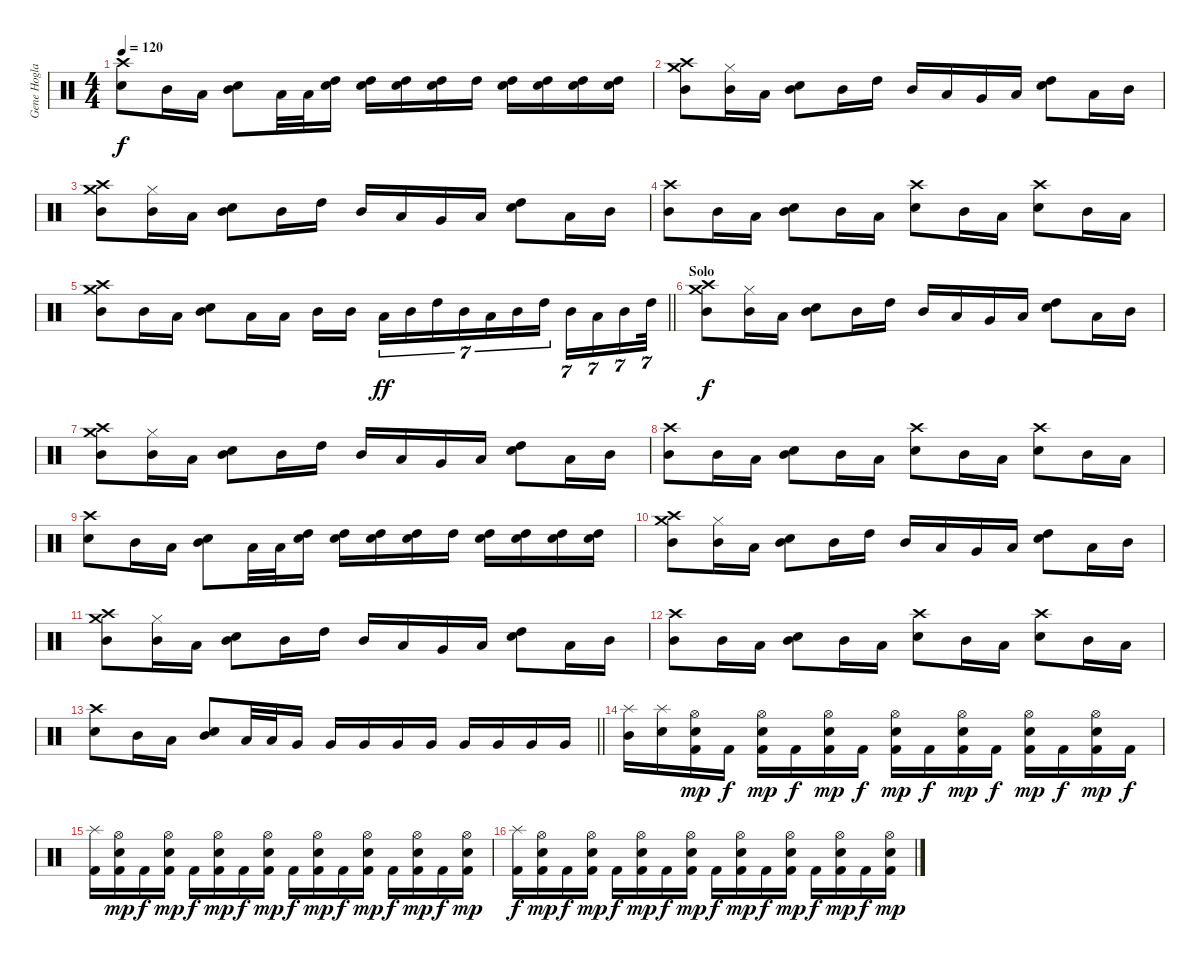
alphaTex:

\track ("Gene Hoglan" "Gene Hogla") {instrument percussion}
\staff {score}
\articulation defaults
\ts (4 4)
\tempo 120
\clef neutral
\ks c
("Electric Snare (hit)" "Crash high (hit)").8{dy f} "Mid Tom (hit)".16 "Low Tom (hit)".16 ("Electric Snare (hit)" "Mid Tom (hit)").8 "Low Tom (hit)".32 "Low Tom (hit)".32 ("High Tom (hit)" "Electric Snare (hit)").16 ("High Tom (hit)" "Electric Snare (hit)").16 ("High Tom (hit)" "Electric Snare (hit)").16 ("High Tom (hit)" "Electric Snare (hit)").16 "High Tom (hit)".16 ("High Tom (hit)" "Electric Snare (hit)").16 ("High Tom (hit)" "Electric Snare (hit)").16 ("Electric Snare (hit)" "High Tom (hit)").16 ("High Tom (hit)" "Electric Snare (hit)").16 |
("Crash high (hit)" "Mid Tom (hit)" "Crash medium (hit)").8 ("Mid Tom (hit)" "Hi-Hat (closed)").16 "Low Tom (hit)".16 ("Electric Snare (hit)" "Mid Tom (hit)").8 "Mid Tom (hit)".16 "High Tom (hit)".16 "Mid Tom (hit)".16 "Low Tom (hit)".16 "Very Low Tom (hit)".16 "Low Tom (hit)".16 ("Electric Snare (hit)" "High Tom (hit)").8 "Low Tom (hit)".16 "Mid Tom (hit)".16 |
("Crash high (hit)" "Mid Tom (hit)" "Crash medium (hit)").8 ("Mid Tom (hit)" "Hi-Hat (closed)").16 "Low Tom (hit)".16 ("Electric Snare (hit)" "Mid Tom (hit)").8 "Mid Tom (hit)".16 "High Tom (hit)".16 "Mid Tom (hit)".16 "Low Tom (hit)".16 "Very Low Tom (hit)".16 "Low Tom (hit)".16 ("Electric Snare (hit)" "High Tom (hit)").8 "Low Tom (hit)".16 "Mid Tom (hit)".16 |
("Mid Tom (hit)" "Crash high (hit)").8 "Mid Tom (hit)".16 "Low Tom (hit)".16 ("Electric Snare (hit)" "Mid Tom (hit)").8 "Mid Tom (hit)".16 "Low Tom (hit)".16 ("Electric Snare (hit)" "Crash high (hit)").8 "Mid Tom (hit)".16 "Low Tom (hit)".16 ("Electric Snare (hit)" "Crash high (hit)").8 "Mid Tom (hit)".16 "Low Tom (hit)".16 |
\barLineRight lightlight
("Mid Tom (hit)" "Crash high (hit)" "Crash medium (hit)").8 "Mid Tom (hit)".16 "Low Tom (hit)".16 ("Electric Snare (hit)" "Mid Tom (hit)").8 "Low Tom (hit)".16 "Low Tom (hit)".16 "Mid Tom (hit)".16 "Mid Tom (hit)".16{beam splitsecondary} "Low Tom (hit)".16{tu (7 4) dy ff} "Mid Tom (hit)".16{tu (7 4)} "High Tom (hit)".16{tu (7 4)} "Mid Tom (hit)".16{tu (7 4)} "Low Tom (hit)".16{tu (7 4)} "Mid Tom (hit)".16{tu (7 4)} "High Tom (hit)".16{tu (7 4) beam splitsecondary} "Mid Tom (hit)".16{tu (7 4)} "Low Tom (hit)".16{tu (7 4)} "Mid Tom (hit)".16{tu (7 4)} "High Tom (hit)".32{tu (7 4)} |
\section ("" "Solo")
("Crash high (hit)" "Mid Tom (hit)" "Crash medium (hit)").8{dy f} ("Mid Tom (hit)" "Hi-Hat (closed)").16 "Low Tom (hit)".16 ("Electric Snare (hit)" "Mid Tom (hit)").8 "Mid Tom (hit)".16 "High Tom (hit)".16 "Mid Tom (hit)".16 "Low Tom (hit)".16 "Very Low Tom (hit)".16 "Low Tom (hit)".16 ("Electric Snare (hit)" "High Tom (hit)").8 "Low Tom (hit)".16 "Mid Tom (hit)".16 |
("Crash high (hit)" "Mid Tom (hit)" "Crash medium (hit)").8 ("Mid Tom (hit)" "Hi-Hat (closed)").16 "Low Tom (hit)".16 ("Electric Snare (hit)" "Mid Tom (hit)").8 "Mid Tom (hit)".16 "High Tom (hit)".16 "Mid Tom (hit)".16 "Low Tom (hit)".16 "Very Low Tom (hit)".16 "Low Tom (hit)".16 ("Electric Snare (hit)" "High Tom (hit)").8 "Low Tom (hit)".16 "Mid Tom (hit)".16 |
("Mid Tom (hit)" "Crash high (hit)").8 "Mid Tom (hit)".16 "Low Tom (hit)".16 ("Electric Snare (hit)" "Mid Tom (hit)").8 "Mid Tom (hit)".16 "Low Tom (hit)".16 ("Electric Snare (hit)" "Crash high (hit)").8 "Mid Tom (hit)".16 "Low Tom (hit)".16 ("Electric Snare (hit)" "Crash high (hit)").8 "Mid Tom (hit)".16 "Low Tom (hit)".16 |
("Electric Snare (hit)" "Crash high (hit)").8 "Mid Tom (hit)".16 "Low Tom (hit)".16 ("Electric Snare (hit)" "Mid Tom (hit)").8 "Low Tom (hit)".32 "Low Tom (hit)".32 ("High Tom (hit)" "Electric Snare (hit)").16 ("High Tom (hit)" "Electric Snare (hit)").16 ("High Tom (hit)" "Electric Snare (hit)").16 ("High Tom (hit)" "Electric Snare (hit)").16 "High Tom (hit)".16 ("High Tom (hit)" "Electric Snare (hit)").16 ("High Tom (hit)" "Electric Snare (hit)").16 ("Electric Snare (hit)" "High Tom (hit)").16 ("High Tom (hit)" "Electric Snare (hit)").16 |
("Crash high (hit)" "Mid Tom (hit)" "Crash medium (hit)").8 ("Mid Tom (hit)" "Hi-Hat (closed)").16 "Low Tom (hit)".16 ("Electric Snare (hit)" "Mid Tom (hit)").8 "Mid Tom (hit)".16 "High Tom (hit)".16 "Mid Tom (hit)".16 "Low Tom (hit)".16 "Very Low Tom (hit)".16 "Low Tom (hit)".16 ("Electric Snare (hit)" "High Tom (hit)").8 "Low Tom (hit)".16 "Mid Tom (hit)".16 |
("Crash high (hit)" "Mid Tom (hit)" "Crash medium (hit)").8 ("Mid Tom (hit)" "Hi-Hat (closed)").16 "Low Tom (hit)".16 ("Electric Snare (hit)" "Mid Tom (hit)").8 "Mid Tom (hit)".16 "High Tom (hit)".16 "Mid Tom (hit)".16 "Low Tom (hit)".16 "Very Low Tom (hit)".16 "Low Tom (hit)".16 ("Electric Snare (hit)" "High Tom (hit)").8 "Low Tom (hit)".16 "Mid Tom (hit)".16 |
("Mid Tom (hit)" "Crash high (hit)").8 "Mid Tom (hit)".16 "Low Tom (hit)".16 ("Electric Snare (hit)" "Mid Tom (hit)").8 "Mid Tom (hit)".16 "Low Tom (hit)".16 ("Electric Snare (hit)" "Crash high (hit)").8 "Mid Tom (hit)".16 "Low Tom (hit)".16 ("Electric Snare (hit)" "Crash high (hit)").8 "Mid Tom (hit)".16 "Low Tom (hit)".16 |
\barLineRight lightlight
("Electric Snare (hit)" "Crash high (hit)").8 "Mid Tom (hit)".16 "Low Tom (hit)".16 ("Electric Snare (hit)" "Mid Tom (hit)").8 "Low Tom (hit)".32 "Low Tom (hit)".32 "Very Low Tom (hit)".16 "Very Low Tom (hit)".16 "Very Low Tom (hit)".16 "Very Low Tom (hit)".16 "Very Low Tom (hit)".16 "Very Low Tom (hit)".16 "Very Low Tom (hit)".16 "Very Low Tom (hit)".16 "Very Low Tom (hit)".16 |
("Splash (hit)" "Mid Tom (hit)").16 ("Electric Snare (hit)" "Splash (hit)").16 ("Hi-Hat (open)" "Snare (hit) 2" "Kick (hit) 2").16{dy mp} "Kick (hit) 2".16{dy f} ("Hi-Hat (open)" "Snare (hit) 2" "Kick (hit) 2").16{dy mp} "Kick (hit) 2".16{dy f} ("Hi-Hat (open)" "Snare (hit) 2" "Kick (hit) 2").16{dy mp} "Kick (hit) 2".16{dy f} ("Hi-Hat (open)" "Snare (hit) 2" "Kick (hit) 2").16{dy mp} "Kick (hit) 2".16{dy f} ("Hi-Hat (open)" "Snare (hit) 2" "Kick (hit) 2").16{dy mp} "Kick (hit) 2".16{dy f} ("Hi-Hat (open)" "Snare (hit) 2" "Kick (hit) 2").16{dy mp} "Kick (hit) 2".16{dy f} ("Hi-Hat (open)" "Snare (hit) 2" "Kick (hit) 2").16{dy mp} "Kick (hit) 2".16{dy f} |
("Splash (hit)" "Kick (hit) 2").16 ("Hi-Hat (open)" "Snare (hit) 2" "Kick (hit) 2").16{dy mp} "Kick (hit) 2".16{dy f} ("Hi-Hat (open)" "Snare (hit) 2" "Kick (hit) 2").16{dy mp} "Kick (hit) 2".16{dy f} ("Hi-Hat (open)" "Snare (hit) 2" "Kick (hit) 2").16{dy mp} "Kick (hit) 2".16{dy f} ("Hi-Hat (open)" "Snare (hit) 2" "Kick (hit) 2").16{dy mp} "Kick (hit) 2".16{dy f} ("Hi-Hat (open)" "Snare (hit) 2" "Kick (hit) 2").16{dy mp} "Kick (hit) 2".16{dy f} ("Hi-Hat (open)" "Snare (hit) 2" "Kick (hit) 2").16{dy mp} "Kick (hit) 2".16{dy f} ("Hi-Hat (open)" "Snare (hit) 2" "Kick (hit) 2").16{dy mp} "Kick (hit) 2".16{dy f} ("Hi-Hat (open)" "Snare (hit) 2" "Kick (hit) 2").16{dy mp} |
("Splash (hit)" "Kick (hit) 2").16{dy f} ("Hi-Hat (open)" "Snare (hit) 2" "Kick (hit) 2").16{dy mp} "Kick (hit) 2".16{dy f} ("Hi-Hat (open)" "Snare (hit) 2" "Kick (hit) 2").16{dy mp} "Kick (hit) 2".16{dy f} ("Hi-Hat (open)" "Snare (hit) 2" "Kick (hit) 2").16{dy mp} "Kick (hit) 2".16{dy f} ("Hi-Hat (open)" "Snare (hit) 2" "Kick (hit) 2").16{dy mp} "Kick (hit) 2".16{dy f} ("Hi-Hat (open)" "Snare (hit) 2" "Kick (hit) 2").16{dy mp} "Kick (hit) 2".16{dy f} ("Hi-Hat (open)" "Snare (hit) 2" "Kick (hit) 2").16{dy mp} "Kick (hit) 2".16{dy f} ("Hi-Hat (open)" "Snare (hit) 2" "Kick (hit) 2").16{dy mp} "Kick (hit) 2".16{dy f} ("Hi-Hat (open)" "Snare (hit) 2" "Kick (hit) 2").16{dy mp}
